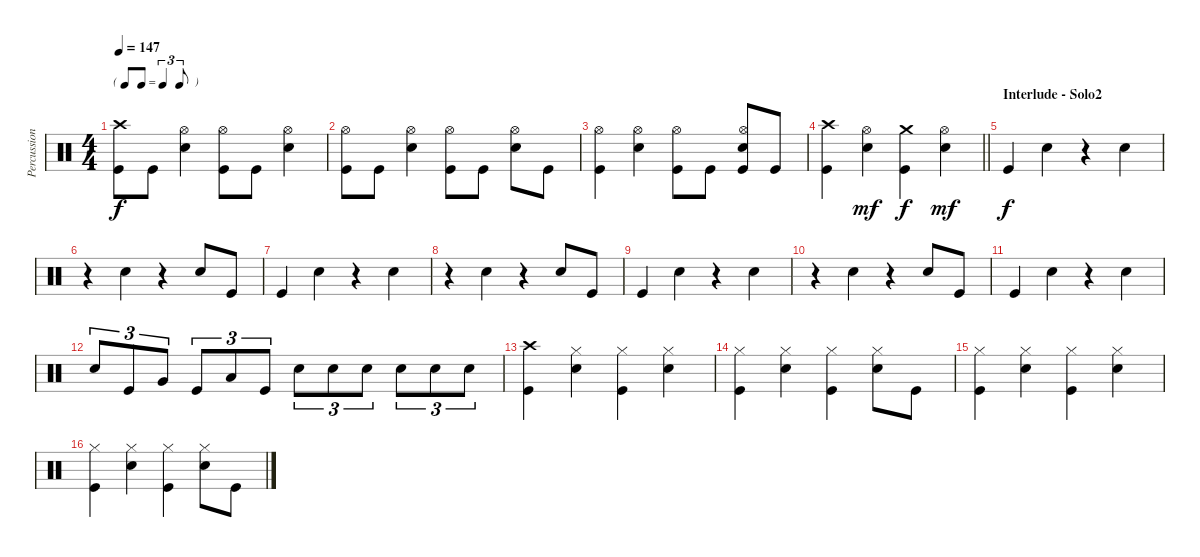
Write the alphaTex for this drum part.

\track ("Percussion" "Percussion") {instrument percussion}
\staff {score}
\articulation defaults
\ts (4 4)
\tf triplet8th
\tempo 147
\clef neutral
\ks c
("Kick (hit)" "Crash high (hit)").8{dy f} "Kick (hit)".8 ("Hi-Hat (open)" "Snare (hit) 2").4 ("Kick (hit)" "Hi-Hat (open)").8 "Kick (hit)".8 ("Hi-Hat (open)" "Snare (hit) 2").4 |
("Kick (hit)" "Hi-Hat (open)").8 "Kick (hit)".8 ("Hi-Hat (open)" "Snare (hit) 2").4 ("Kick (hit)" "Hi-Hat (open)").8 "Kick (hit)".8 ("Hi-Hat (open)" "Snare (hit) 2").8 "Kick (hit)".8 |
("Kick (hit)" "Hi-Hat (open)").4 ("Hi-Hat (open)" "Snare (hit) 2").4 ("Kick (hit)" "Hi-Hat (open)").8 "Kick (hit)".8 ("Kick (hit)" "Hi-Hat (open)" "Snare (hit) 2").8 "Kick (hit)".8 |
\barLineRight lightlight
("Kick (hit)" "Crash high (hit)").4 ("Hi-Hat (open)" "Snare (hit) 2").4{dy mf} ("Kick (hit)" "Crash medium (hit)").4{dy f} ("Hi-Hat (open)" "Snare (hit) 2").4{dy mf} |
\section ("" "Interlude - Solo2")
"Kick (hit)".4{dy f} "Snare (hit) 2".4 r.4 "Snare (hit) 2".4 |
r.4 "Snare (hit) 2".4 r.4 "Snare (hit) 2".8 "Kick (hit)".8 |
"Kick (hit)".4 "Snare (hit) 2".4 r.4 "Snare (hit) 2".4 |
r.4 "Snare (hit) 2".4 r.4 "Snare (hit) 2".8 "Kick (hit)".8 |
"Kick (hit)".4 "Snare (hit) 2".4 r.4 "Snare (hit) 2".4 |
r.4 "Snare (hit) 2".4 r.4 "Snare (hit) 2".8 "Kick (hit)".8 |
"Kick (hit)".4 "Snare (hit) 2".4 r.4 "Snare (hit) 2".4 |
"Snare (hit) 2".8{tu (3 2)} "Kick (hit)".8{tu (3 2)} "Very Low Tom (hit)".8{tu (3 2)} "Kick (hit)".8{tu (3 2)} "Low Floor Tom (hit)".8{tu (3 2)} "Kick (hit)".8{tu (3 2)} "Snare (hit) 2".8{tu (3 2)} "Snare (hit) 2".8{tu (3 2)} "Snare (hit) 2".8{tu (3 2)} "Snare (hit) 2".8{tu (3 2)} "Snare (hit) 2".8{tu (3 2)} "Snare (hit) 2".8{tu (3 2)} |
("Kick (hit)" "Crash high (hit)").4 ("Hi-Hat (closed)" "Snare (hit) 2").4 ("Kick (hit)" "Hi-Hat (closed)").4 ("Hi-Hat (closed)" "Snare (hit) 2").4 |
("Kick (hit)" "Hi-Hat (closed)").4 ("Hi-Hat (closed)" "Snare (hit) 2").4 ("Kick (hit)" "Hi-Hat (closed)").4 ("Hi-Hat (closed)" "Snare (hit) 2").8 "Kick (hit)".8 |
("Kick (hit)" "Hi-Hat (closed)").4 ("Hi-Hat (closed)" "Snare (hit) 2").4 ("Kick (hit)" "Hi-Hat (closed)").4 ("Hi-Hat (closed)" "Snare (hit) 2").4 |
("Kick (hit)" "Hi-Hat (closed)").4 ("Hi-Hat (closed)" "Snare (hit) 2").4 ("Kick (hit)" "Hi-Hat (closed)").4 ("Hi-Hat (closed)" "Snare (hit) 2").8 "Kick (hit)".8
